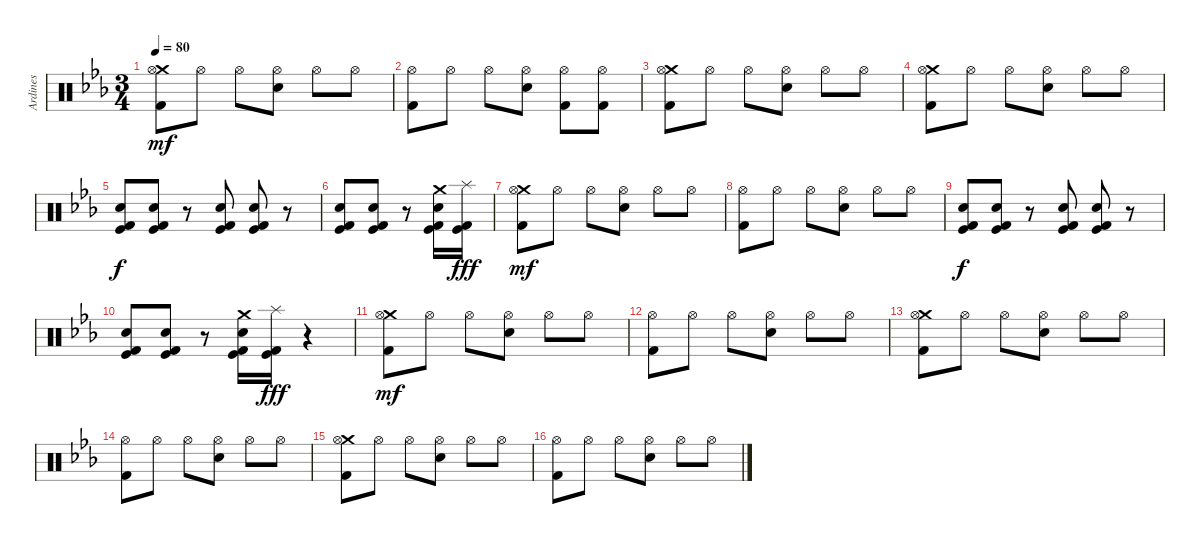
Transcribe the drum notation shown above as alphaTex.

\track ("Ardines" "Ardines") {instrument percussion}
\staff {score}
\articulation defaults
\ts (3 4)
\tempo 80
\clef neutral
\ks eb
("Kick (hit) 2" "Crash medium (hit)" "Hi-Hat (open)").8{dy mf} "Hi-Hat (open)".8 "Hi-Hat (open)".8 ("Snare (hit) 2" "Hi-Hat (open)").8 "Hi-Hat (open)".8 "Hi-Hat (open)".8 |
("Kick (hit) 2" "Hi-Hat (open)").8 "Hi-Hat (open)".8 "Hi-Hat (open)".8 ("Snare (hit) 2" "Hi-Hat (open)").8 ("Kick (hit) 2" "Hi-Hat (open)").8 ("Kick (hit) 2" "Hi-Hat (open)").8 |
("Kick (hit) 2" "Crash medium (hit)" "Hi-Hat (open)").8 "Hi-Hat (open)".8 "Hi-Hat (open)".8 ("Snare (hit) 2" "Hi-Hat (open)").8 "Hi-Hat (open)".8 "Hi-Hat (open)".8 |
("Kick (hit) 2" "Crash medium (hit)" "Hi-Hat (open)").8 "Hi-Hat (open)".8 "Hi-Hat (open)".8 ("Snare (hit) 2" "Hi-Hat (open)").8 "Hi-Hat (open)".8 "Hi-Hat (open)".8 |
("Snare (hit) 2" "Kick (hit) 2" "Kick (hit)").8{dy f} ("Snare (hit) 2" "Kick (hit) 2" "Kick (hit)").8 r.8 ("Snare (hit) 2" "Kick (hit) 2" "Kick (hit)").8 ("Snare (hit) 2" "Kick (hit) 2" "Kick (hit)").8 r.8 |
("Snare (hit) 2" "Kick (hit) 2" "Kick (hit)").8 ("Snare (hit) 2" "Kick (hit) 2" "Kick (hit)").8 r.8 ("Snare (hit) 2" "Kick (hit) 2" "Kick (hit)" "Crash medium (hit)").16 ("Kick (hit) 2" "Kick (hit)" "Splash (hit)").16{dy fff} |
("Kick (hit) 2" "Crash medium (hit)" "Hi-Hat (open)").8{dy mf} "Hi-Hat (open)".8 "Hi-Hat (open)".8 ("Snare (hit) 2" "Hi-Hat (open)").8 "Hi-Hat (open)".8 "Hi-Hat (open)".8 |
("Kick (hit) 2" "Hi-Hat (open)").8 "Hi-Hat (open)".8 "Hi-Hat (open)".8 ("Snare (hit) 2" "Hi-Hat (open)").8 "Hi-Hat (open)".8 "Hi-Hat (open)".8 |
("Snare (hit) 2" "Kick (hit) 2" "Kick (hit)").8{dy f} ("Snare (hit) 2" "Kick (hit) 2" "Kick (hit)").8 r.8 ("Snare (hit) 2" "Kick (hit) 2" "Kick (hit)").8 ("Snare (hit) 2" "Kick (hit) 2" "Kick (hit)").8 r.8 |
("Snare (hit) 2" "Kick (hit) 2" "Kick (hit)").8 ("Snare (hit) 2" "Kick (hit) 2" "Kick (hit)").8 r.8 ("Snare (hit) 2" "Kick (hit) 2" "Kick (hit)" "Crash medium (hit)").16 ("Kick (hit) 2" "Kick (hit)" "Splash (hit)").16{dy fff} r.4 |
("Kick (hit) 2" "Crash medium (hit)" "Hi-Hat (open)").8{dy mf} "Hi-Hat (open)".8 "Hi-Hat (open)".8 ("Snare (hit) 2" "Hi-Hat (open)").8 "Hi-Hat (open)".8 "Hi-Hat (open)".8 |
("Kick (hit) 2" "Hi-Hat (open)").8 "Hi-Hat (open)".8 "Hi-Hat (open)".8 ("Snare (hit) 2" "Hi-Hat (open)").8 "Hi-Hat (open)".8 "Hi-Hat (open)".8 |
("Kick (hit) 2" "Crash medium (hit)" "Hi-Hat (open)").8 "Hi-Hat (open)".8 "Hi-Hat (open)".8 ("Snare (hit) 2" "Hi-Hat (open)").8 "Hi-Hat (open)".8 "Hi-Hat (open)".8 |
("Kick (hit) 2" "Hi-Hat (open)").8 "Hi-Hat (open)".8 "Hi-Hat (open)".8 ("Snare (hit) 2" "Hi-Hat (open)").8 "Hi-Hat (open)".8 "Hi-Hat (open)".8 |
("Kick (hit) 2" "Crash medium (hit)" "Hi-Hat (open)").8 "Hi-Hat (open)".8 "Hi-Hat (open)".8 ("Snare (hit) 2" "Hi-Hat (open)").8 "Hi-Hat (open)".8 "Hi-Hat (open)".8 |
("Kick (hit) 2" "Hi-Hat (open)").8 "Hi-Hat (open)".8 "Hi-Hat (open)".8 ("Snare (hit) 2" "Hi-Hat (open)").8 "Hi-Hat (open)".8 "Hi-Hat (open)".8
